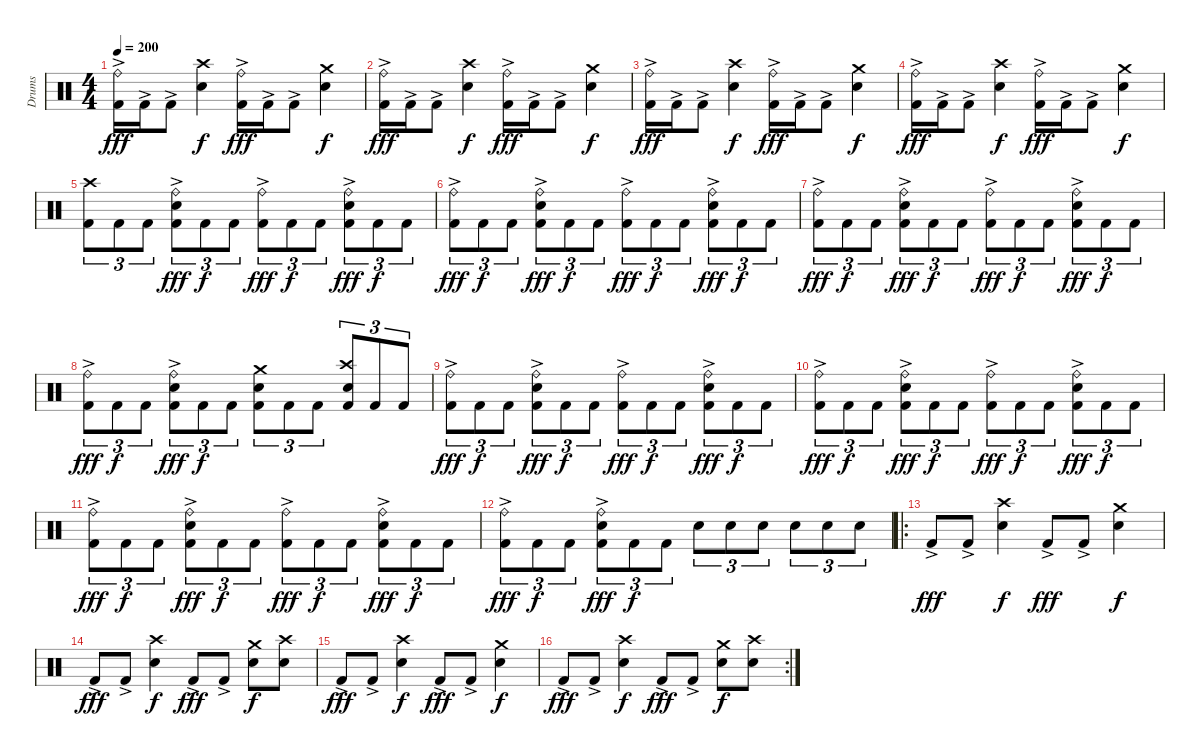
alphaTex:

\track ("Drums" "Drums") {instrument percussion}
\staff {score}
\articulation defaults
\ts (4 4)
\tempo 200
\clef neutral
\ks c
("Ride (bell)"{ac} "Kick (hit) 2"{ac}).16{dy fff} "Kick (hit) 2"{ac}.16 "Kick (hit) 2"{ac}.8 ("Crash high (hit)" "Snare (hit) 2").4{dy f} ("Ride (bell)"{ac} "Kick (hit) 2"{ac}).16{dy fff} "Kick (hit) 2"{ac}.16 "Kick (hit) 2"{ac}.8 ("Crash medium (hit)" "Snare (hit) 2").4{dy f} |
("Ride (bell)"{ac} "Kick (hit) 2"{ac}).16{dy fff} "Kick (hit) 2"{ac}.16 "Kick (hit) 2"{ac}.8 ("Crash high (hit)" "Snare (hit) 2").4{dy f} ("Ride (bell)"{ac} "Kick (hit) 2"{ac}).16{dy fff} "Kick (hit) 2"{ac}.16 "Kick (hit) 2"{ac}.8 ("Crash medium (hit)" "Snare (hit) 2").4{dy f} |
("Ride (bell)"{ac} "Kick (hit) 2"{ac}).16{dy fff} "Kick (hit) 2"{ac}.16 "Kick (hit) 2"{ac}.8 ("Crash high (hit)" "Snare (hit) 2").4{dy f} ("Ride (bell)"{ac} "Kick (hit) 2"{ac}).16{dy fff} "Kick (hit) 2"{ac}.16 "Kick (hit) 2"{ac}.8 ("Crash medium (hit)" "Snare (hit) 2").4{dy f} |
("Ride (bell)"{ac} "Kick (hit) 2"{ac}).16{dy fff} "Kick (hit) 2"{ac}.16 "Kick (hit) 2"{ac}.8 ("Crash high (hit)" "Snare (hit) 2").4{dy f} ("Ride (bell)"{ac} "Kick (hit) 2"{ac}).16{dy fff} "Kick (hit) 2"{ac}.16 "Kick (hit) 2"{ac}.8 ("Crash medium (hit)" "Snare (hit) 2").4{dy f} |
("Crash high (hit)" "Kick (hit) 2").8{tu (3 2)} "Kick (hit) 2".8{tu (3 2)} "Kick (hit) 2".8{tu (3 2)} ("Ride (bell)"{ac} "Snare (hit) 2" "Kick (hit) 2").8{tu (3 2) dy fff} "Kick (hit) 2".8{tu (3 2) dy f} "Kick (hit) 2".8{tu (3 2)} ("Ride (bell)"{ac} "Kick (hit) 2").8{tu (3 2) dy fff} "Kick (hit) 2".8{tu (3 2) dy f} "Kick (hit) 2".8{tu (3 2)} ("Ride (bell)"{ac} "Snare (hit) 2" "Kick (hit) 2").8{tu (3 2) dy fff} "Kick (hit) 2".8{tu (3 2) dy f} "Kick (hit) 2".8{tu (3 2)} |
("Ride (bell)"{ac} "Kick (hit) 2").8{tu (3 2) dy fff} "Kick (hit) 2".8{tu (3 2) dy f} "Kick (hit) 2".8{tu (3 2)} ("Ride (bell)"{ac} "Snare (hit) 2" "Kick (hit) 2").8{tu (3 2) dy fff} "Kick (hit) 2".8{tu (3 2) dy f} "Kick (hit) 2".8{tu (3 2)} ("Ride (bell)"{ac} "Kick (hit) 2").8{tu (3 2) dy fff} "Kick (hit) 2".8{tu (3 2) dy f} "Kick (hit) 2".8{tu (3 2)} ("Ride (bell)"{ac} "Snare (hit) 2" "Kick (hit) 2").8{tu (3 2) dy fff} "Kick (hit) 2".8{tu (3 2) dy f} "Kick (hit) 2".8{tu (3 2)} |
("Ride (bell)"{ac} "Kick (hit) 2").8{tu (3 2) dy fff} "Kick (hit) 2".8{tu (3 2) dy f} "Kick (hit) 2".8{tu (3 2)} ("Ride (bell)"{ac} "Snare (hit) 2" "Kick (hit) 2").8{tu (3 2) dy fff} "Kick (hit) 2".8{tu (3 2) dy f} "Kick (hit) 2".8{tu (3 2)} ("Ride (bell)"{ac} "Kick (hit) 2").8{tu (3 2) dy fff} "Kick (hit) 2".8{tu (3 2) dy f} "Kick (hit) 2".8{tu (3 2)} ("Ride (bell)"{ac} "Snare (hit) 2" "Kick (hit) 2").8{tu (3 2) dy fff} "Kick (hit) 2".8{tu (3 2) dy f} "Kick (hit) 2".8{tu (3 2)} |
("Ride (bell)"{ac} "Kick (hit) 2").8{tu (3 2) dy fff} "Kick (hit) 2".8{tu (3 2) dy f} "Kick (hit) 2".8{tu (3 2)} ("Ride (bell)"{ac} "Snare (hit) 2" "Kick (hit) 2").8{tu (3 2) dy fff} "Kick (hit) 2".8{tu (3 2) dy f} "Kick (hit) 2".8{tu (3 2)} ("Crash medium (hit)" "Snare (hit) 2" "Kick (hit) 2").8{tu (3 2)} "Kick (hit) 2".8{tu (3 2)} "Kick (hit) 2".8{tu (3 2)} ("Crash high (hit)" "Snare (hit) 2" "Kick (hit) 2").8{tu (3 2)} "Kick (hit) 2".8{tu (3 2)} "Kick (hit) 2".8{tu (3 2)} |
("Ride (bell)"{ac} "Kick (hit) 2").8{tu (3 2) dy fff} "Kick (hit) 2".8{tu (3 2) dy f} "Kick (hit) 2".8{tu (3 2)} ("Ride (bell)"{ac} "Snare (hit) 2" "Kick (hit) 2").8{tu (3 2) dy fff} "Kick (hit) 2".8{tu (3 2) dy f} "Kick (hit) 2".8{tu (3 2)} ("Ride (bell)"{ac} "Kick (hit) 2").8{tu (3 2) dy fff} "Kick (hit) 2".8{tu (3 2) dy f} "Kick (hit) 2".8{tu (3 2)} ("Ride (bell)"{ac} "Snare (hit) 2" "Kick (hit) 2").8{tu (3 2) dy fff} "Kick (hit) 2".8{tu (3 2) dy f} "Kick (hit) 2".8{tu (3 2)} |
("Ride (bell)"{ac} "Kick (hit) 2").8{tu (3 2) dy fff} "Kick (hit) 2".8{tu (3 2) dy f} "Kick (hit) 2".8{tu (3 2)} ("Ride (bell)"{ac} "Snare (hit) 2" "Kick (hit) 2").8{tu (3 2) dy fff} "Kick (hit) 2".8{tu (3 2) dy f} "Kick (hit) 2".8{tu (3 2)} ("Ride (bell)"{ac} "Kick (hit) 2").8{tu (3 2) dy fff} "Kick (hit) 2".8{tu (3 2) dy f} "Kick (hit) 2".8{tu (3 2)} ("Ride (bell)"{ac} "Snare (hit) 2" "Kick (hit) 2").8{tu (3 2) dy fff} "Kick (hit) 2".8{tu (3 2) dy f} "Kick (hit) 2".8{tu (3 2)} |
("Ride (bell)"{ac} "Kick (hit) 2").8{tu (3 2) dy fff} "Kick (hit) 2".8{tu (3 2) dy f} "Kick (hit) 2".8{tu (3 2)} ("Ride (bell)"{ac} "Snare (hit) 2" "Kick (hit) 2").8{tu (3 2) dy fff} "Kick (hit) 2".8{tu (3 2) dy f} "Kick (hit) 2".8{tu (3 2)} ("Ride (bell)"{ac} "Kick (hit) 2").8{tu (3 2) dy fff} "Kick (hit) 2".8{tu (3 2) dy f} "Kick (hit) 2".8{tu (3 2)} ("Ride (bell)"{ac} "Snare (hit) 2" "Kick (hit) 2").8{tu (3 2) dy fff} "Kick (hit) 2".8{tu (3 2) dy f} "Kick (hit) 2".8{tu (3 2)} |
("Ride (bell)"{ac} "Kick (hit) 2").8{tu (3 2) dy fff} "Kick (hit) 2".8{tu (3 2) dy f} "Kick (hit) 2".8{tu (3 2)} ("Ride (bell)"{ac} "Snare (hit) 2" "Kick (hit) 2").8{tu (3 2) dy fff} "Kick (hit) 2".8{tu (3 2) dy f} "Kick (hit) 2".8{tu (3 2)} "Snare (hit) 2".8{tu (3 2)} "Snare (hit) 2".8{tu (3 2)} "Snare (hit) 2".8{tu (3 2)} "Snare (hit) 2".8{tu (3 2)} "Snare (hit) 2".8{tu (3 2)} "Snare (hit) 2".8{tu (3 2)} |
\ro "Kick (hit) 2"{ac}.8{dy fff} "Kick (hit) 2"{ac}.8
("Crash high (hit)" "Snare (hit) 2").4{dy f} "Kick (hit) 2"{ac}.8{dy fff} "Kick (hit) 2"{ac}.8 ("Crash medium (hit)" "Snare (hit) 2").4{dy f} |
"Kick (hit) 2"{ac}.8{dy fff} "Kick (hit) 2"{ac}.8 ("Crash high (hit)" "Snare (hit) 2").4{dy f} "Kick (hit) 2"{ac}.8{dy fff} "Kick (hit) 2"{ac}.8 ("Crash medium (hit)" "Snare (hit) 2").8{dy f} ("Crash high (hit)" "Snare (hit) 2").8 |
"Kick (hit) 2"{ac}.8{dy fff} "Kick (hit) 2"{ac}.8 ("Crash high (hit)" "Snare (hit) 2").4{dy f} "Kick (hit) 2"{ac}.8{dy fff} "Kick (hit) 2"{ac}.8 ("Crash medium (hit)" "Snare (hit) 2").4{dy f} |
\rc 2 "Kick (hit) 2"{ac}.8{dy fff} "Kick (hit) 2"{ac}.8
("Crash high (hit)" "Snare (hit) 2").4{dy f} "Kick (hit) 2"{ac}.8{dy fff} "Kick (hit) 2"{ac}.8 ("Crash medium (hit)" "Snare (hit) 2").8{dy f} ("Crash high (hit)" "Snare (hit) 2").8
